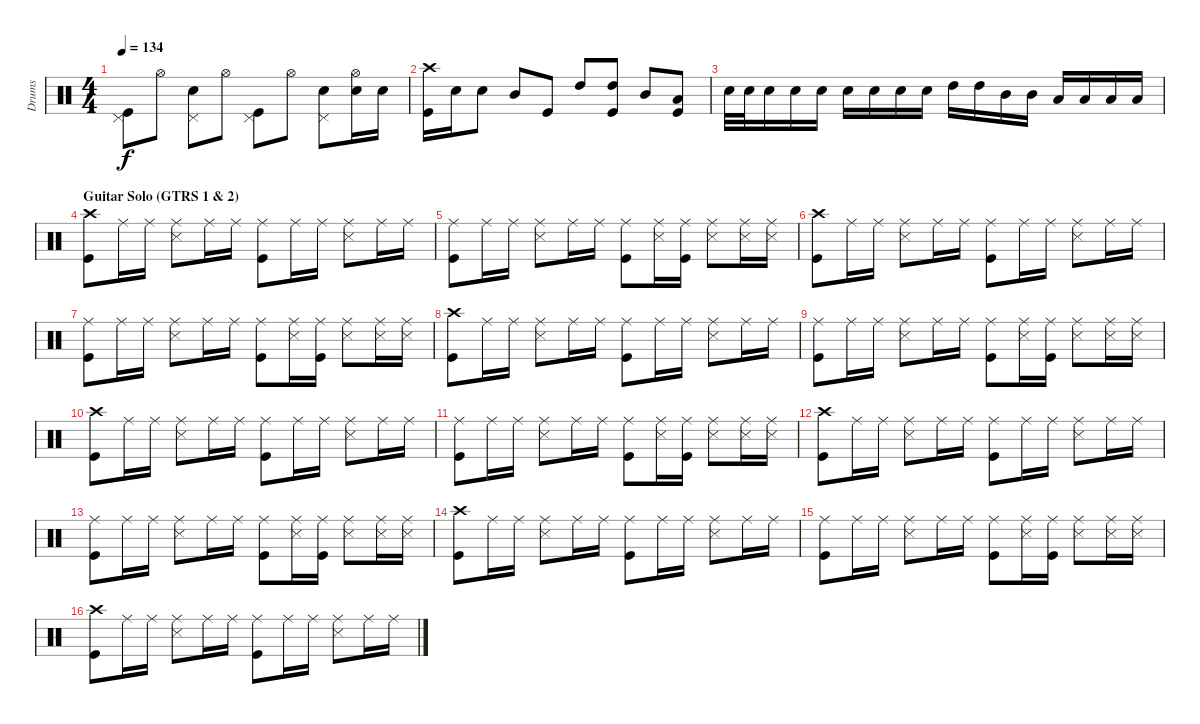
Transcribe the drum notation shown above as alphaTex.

\track ("Drums" "Drums") {instrument percussion}
\staff {score}
\articulation defaults
\ts (4 4)
\tempo 134
\clef neutral
\ks c
("Pedal Hi-Hat (hit)" "Kick (hit)").8{dy f} "Hi-Hat (open)".8 ("Pedal Hi-Hat (hit)" "Electric Snare (hit)").8 "Hi-Hat (open)".8 ("Pedal Hi-Hat (hit)" "Kick (hit)").8 "Hi-Hat (open)".8 ("Pedal Hi-Hat (hit)" "Electric Snare (hit)").8 ("Hi-Hat (open)" "Electric Snare (hit)").16 "Electric Snare (hit)".16 |
("Crash high (hit)" "Kick (hit)").16 "Electric Snare (hit)".16 "Electric Snare (hit)".8 "Mid Tom (hit)".8 "Kick (hit)".8 "High Tom (hit)".8 ("High Tom (hit)" "Kick (hit)").8 "Mid Tom (hit)".8 ("Low Tom (hit)" "Kick (hit)").8 |
"Electric Snare (hit)".32 "Electric Snare (hit)".32 "Electric Snare (hit)".16 "Electric Snare (hit)".16 "Electric Snare (hit)".16 "Electric Snare (hit)".16 "Electric Snare (hit)".16 "Electric Snare (hit)".16 "Electric Snare (hit)".16 "High Tom (hit)".16 "High Tom (hit)".16 "Mid Tom (hit)".16 "Mid Tom (hit)".16 "Low Tom (hit)".16 "Low Tom (hit)".16 "Low Tom (hit)".16 "Low Tom (hit)".16 |
\section ("" "Guitar Solo (GTRS 1 & 2)")
("Crash high (hit)" "Kick (hit)").8 "Ride (middle)".16 "Ride (middle)".16 ("Ride (middle)" "Snare (side stick) 3").8 "Ride (middle)".16 "Ride (middle)".16 ("Ride (middle)" "Kick (hit)").8 "Ride (middle)".16 "Ride (middle)".16 ("Ride (middle)" "Snare (side stick) 3").8 "Ride (middle)".16 "Ride (middle)".16 |
("Ride (middle)" "Kick (hit)").8 "Ride (middle)".16 "Ride (middle)".16 ("Ride (middle)" "Snare (side stick) 3").8 "Ride (middle)".16 "Ride (middle)".16 ("Ride (middle)" "Kick (hit)").8 ("Ride (middle)" "Snare (side stick) 3").16 ("Ride (middle)" "Kick (hit)").16 ("Ride (middle)" "Snare (side stick) 3").8 ("Ride (middle)" "Snare (side stick) 3").16 ("Ride (middle)" "Snare (side stick) 3").16 |
("Crash high (hit)" "Kick (hit)").8 "Ride (middle)".16 "Ride (middle)".16 ("Ride (middle)" "Snare (side stick) 3").8 "Ride (middle)".16 "Ride (middle)".16 ("Ride (middle)" "Kick (hit)").8 "Ride (middle)".16 "Ride (middle)".16 ("Ride (middle)" "Snare (side stick) 3").8 "Ride (middle)".16 "Ride (middle)".16 |
("Ride (middle)" "Kick (hit)").8 "Ride (middle)".16 "Ride (middle)".16 ("Ride (middle)" "Snare (side stick) 3").8 "Ride (middle)".16 "Ride (middle)".16 ("Ride (middle)" "Kick (hit)").8 ("Ride (middle)" "Snare (side stick) 3").16 ("Ride (middle)" "Kick (hit)").16 ("Ride (middle)" "Snare (side stick) 3").8 ("Ride (middle)" "Snare (side stick) 3").16 ("Ride (middle)" "Snare (side stick) 3").16 |
("Crash high (hit)" "Kick (hit)").8 "Ride (middle)".16 "Ride (middle)".16 ("Ride (middle)" "Snare (side stick) 3").8 "Ride (middle)".16 "Ride (middle)".16 ("Ride (middle)" "Kick (hit)").8 "Ride (middle)".16 "Ride (middle)".16 ("Ride (middle)" "Snare (side stick) 3").8 "Ride (middle)".16 "Ride (middle)".16 |
("Ride (middle)" "Kick (hit)").8 "Ride (middle)".16 "Ride (middle)".16 ("Ride (middle)" "Snare (side stick) 3").8 "Ride (middle)".16 "Ride (middle)".16 ("Ride (middle)" "Kick (hit)").8 ("Ride (middle)" "Snare (side stick) 3").16 ("Ride (middle)" "Kick (hit)").16 ("Ride (middle)" "Snare (side stick) 3").8 ("Ride (middle)" "Snare (side stick) 3").16 ("Ride (middle)" "Snare (side stick) 3").16 |
("Crash high (hit)" "Kick (hit)").8 "Ride (middle)".16 "Ride (middle)".16 ("Ride (middle)" "Snare (side stick) 3").8 "Ride (middle)".16 "Ride (middle)".16 ("Ride (middle)" "Kick (hit)").8 "Ride (middle)".16 "Ride (middle)".16 ("Ride (middle)" "Snare (side stick) 3").8 "Ride (middle)".16 "Ride (middle)".16 |
("Ride (middle)" "Kick (hit)").8 "Ride (middle)".16 "Ride (middle)".16 ("Ride (middle)" "Snare (side stick) 3").8 "Ride (middle)".16 "Ride (middle)".16 ("Ride (middle)" "Kick (hit)").8 ("Ride (middle)" "Snare (side stick) 3").16 ("Ride (middle)" "Kick (hit)").16 ("Ride (middle)" "Snare (side stick) 3").8 ("Ride (middle)" "Snare (side stick) 3").16 ("Ride (middle)" "Snare (side stick) 3").16 |
("Crash high (hit)" "Kick (hit)").8 "Ride (middle)".16 "Ride (middle)".16 ("Ride (middle)" "Snare (side stick) 3").8 "Ride (middle)".16 "Ride (middle)".16 ("Ride (middle)" "Kick (hit)").8 "Ride (middle)".16 "Ride (middle)".16 ("Ride (middle)" "Snare (side stick) 3").8 "Ride (middle)".16 "Ride (middle)".16 |
("Ride (middle)" "Kick (hit)").8 "Ride (middle)".16 "Ride (middle)".16 ("Ride (middle)" "Snare (side stick) 3").8 "Ride (middle)".16 "Ride (middle)".16 ("Ride (middle)" "Kick (hit)").8 ("Ride (middle)" "Snare (side stick) 3").16 ("Ride (middle)" "Kick (hit)").16 ("Ride (middle)" "Snare (side stick) 3").8 ("Ride (middle)" "Snare (side stick) 3").16 ("Ride (middle)" "Snare (side stick) 3").16 |
("Crash high (hit)" "Kick (hit)").8 "Ride (middle)".16 "Ride (middle)".16 ("Ride (middle)" "Snare (side stick) 3").8 "Ride (middle)".16 "Ride (middle)".16 ("Ride (middle)" "Kick (hit)").8 "Ride (middle)".16 "Ride (middle)".16 ("Ride (middle)" "Snare (side stick) 3").8 "Ride (middle)".16 "Ride (middle)".16 |
("Ride (middle)" "Kick (hit)").8 "Ride (middle)".16 "Ride (middle)".16 ("Ride (middle)" "Snare (side stick) 3").8 "Ride (middle)".16 "Ride (middle)".16 ("Ride (middle)" "Kick (hit)").8 ("Ride (middle)" "Snare (side stick) 3").16 ("Ride (middle)" "Kick (hit)").16 ("Ride (middle)" "Snare (side stick) 3").8 ("Ride (middle)" "Snare (side stick) 3").16 ("Ride (middle)" "Snare (side stick) 3").16 |
("Crash high (hit)" "Kick (hit)").8 "Ride (middle)".16 "Ride (middle)".16 ("Ride (middle)" "Snare (side stick) 3").8 "Ride (middle)".16 "Ride (middle)".16 ("Ride (middle)" "Kick (hit)").8 "Ride (middle)".16 "Ride (middle)".16 ("Ride (middle)" "Snare (side stick) 3").8 "Ride (middle)".16 "Ride (middle)".16
